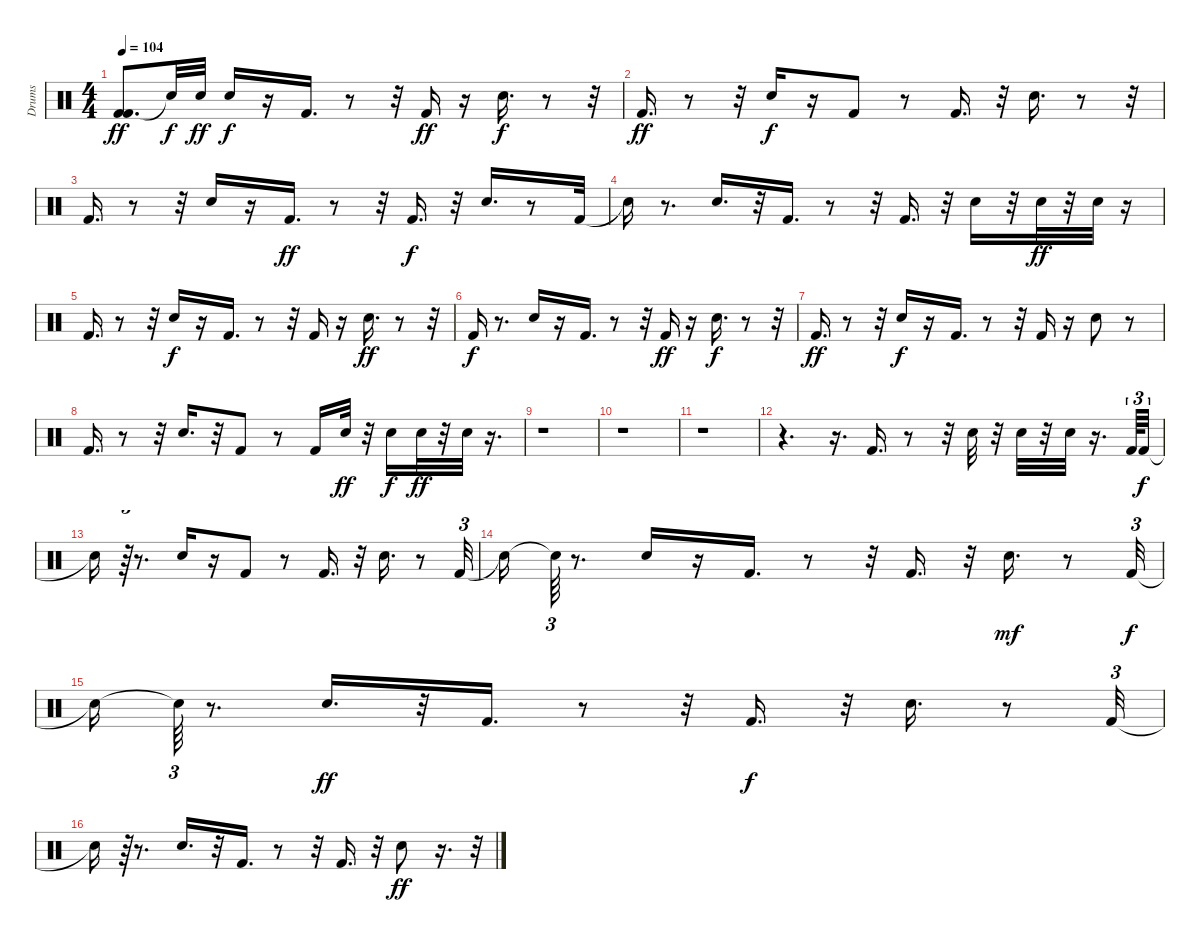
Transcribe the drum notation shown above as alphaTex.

\track ("Drums" "Drums") {instrument percussion}
\staff {score}
\articulation defaults
\ts (4 4)
\tempo 104
\clef neutral
\ks c
("Kick (hit) 2" "Kick (hit) 2").8{d dy ff} "Snare (hit)"{t}.32{dy f} "Snare (hit) 2".32{dy ff} "Snare (hit) 2".16{dy f} r.16 "Kick (hit) 2".16{d} r.8 r.32 "Kick (hit) 2".16{dy ff} r.16 "Snare (hit) 2".16{d dy f} r.8 r.32 |
"Kick (hit) 2".16{d dy ff} r.8 r.32 "Snare (hit) 2".16{dy f} r.16 "Kick (hit) 2".8 r.8 "Kick (hit) 2".16{d} r.32 "Snare (hit) 2".16{d} r.8 r.32 |
"Kick (hit) 2".16{d} r.8 r.32 "Snare (hit) 2".16 r.16 "Kick (hit) 2".16{d dy ff} r.8 r.32 "Kick (hit) 2".16{d dy f} r.32 "Snare (hit) 2".16{d} r.8 "Kick (hit) 2".32 |
"Snare (hit)"{t}.16 r.8{d} "Snare (hit) 2".16{d} r.32 "Kick (hit) 2".16{d} r.8 r.32 "Kick (hit) 2".16{d} r.32 "Snare (hit) 2".16 r.32 "Snare (hit) 2".32{dy ff} r.32 "Snare (hit) 2".32 r.16 |
"Kick (hit) 2".16{d} r.8 r.32 "Snare (hit) 2".16{dy f} r.16 "Kick (hit) 2".16{d} r.8 r.32 "Kick (hit) 2".16 r.16 "Snare (hit) 2".16{d dy ff} r.8 r.32 |
"Kick (hit) 2".16{dy f} r.8{d} "Snare (hit) 2".16 r.16 "Kick (hit) 2".16{d} r.8 r.32 "Kick (hit) 2".16{dy ff} r.16 "Snare (hit) 2".16{d dy f} r.8 r.32 |
"Kick (hit) 2".16{d dy ff} r.8 r.32 "Snare (hit) 2".16{dy f} r.16 "Kick (hit) 2".16{d} r.8 r.32 "Kick (hit) 2".16 r.16 "Snare (hit) 2".8 r.8 |
"Kick (hit) 2".16{d} r.8 r.32 "Snare (hit) 2".16{d} r.32 "Kick (hit) 2".8 r.8 "Kick (hit) 2".16 "Snare (hit) 2".32{dy ff} r.32 "Snare (hit) 2".16{dy f} "Snare (hit) 2".32{dy ff} r.32 "Snare (hit) 2".32 r.16{d} |
r.1 |
r.1 |
r.1 |
r.4{d} r.16{d} "Kick (hit) 2".16{d} r.8 r.32 "Snare (hit) 2".32 r.32 "Snare (hit) 2".32 r.32 "Snare (hit) 2".32 r.16{d} "Kick (hit) 2".64{tu (3 2)} "Kick (hit) 2".32{tu (3 2) dy f} |
"Snare (hit)"{t}.16 r.64{tu (3 2)} r.8{d} "Snare (hit) 2".16 r.16 "Kick (hit) 2".8 r.8 "Kick (hit) 2".16{d} r.32 "Snare (hit) 2".16{d} r.8 "Kick (hit) 2".32{tu (3 2)} |
"Snare (hit)"{t}.16 "Snare (hit)"{t}.64{tu (3 2)} r.8{d} "Snare (hit) 2".16 r.16 "Kick (hit) 2".16{d} r.8 r.32 "Kick (hit) 2".16{d} r.32 "Snare (hit) 2".16{d dy mf} r.8 "Kick (hit) 2".32{tu (3 2) dy f} |
"Snare (hit)"{t}.16 "Snare (hit)"{t}.64{tu (3 2)} r.8{d} "Snare (hit) 2".16{d dy ff} r.32 "Kick (hit) 2".16{d} r.8 r.32 "Kick (hit) 2".16{d dy f} r.32 "Snare (hit) 2".16{d} r.8 "Kick (hit) 2".32{tu (3 2)} |
"Snare (hit)"{t}.16 r.64{tu (3 2)} r.8{d} "Snare (hit) 2".16{d} r.32 "Kick (hit) 2".16{d} r.8 r.32 "Kick (hit) 2".16{d} r.32 "Snare (hit) 2".8{dy ff} r.16{d} r.32{tu (3 2)}
